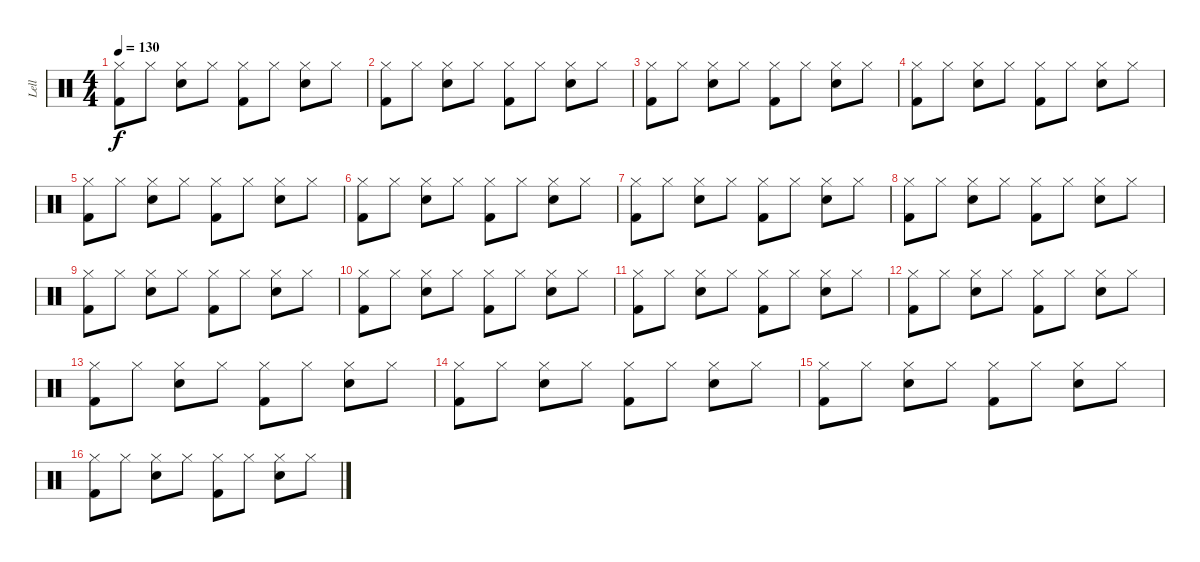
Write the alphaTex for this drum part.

\track ("Lell" "Lell") {instrument percussion}
\staff {score}
\articulation defaults
\ts (4 4)
\tempo 130
\clef neutral
\ks c
("Hi-Hat (closed)" "Kick (hit) 2").8{dy f} "Hi-Hat (closed)".8 ("Hi-Hat (closed)" "Snare (hit) 2").8 "Hi-Hat (closed)".8 ("Hi-Hat (closed)" "Kick (hit) 2").8 "Hi-Hat (closed)".8 ("Hi-Hat (closed)" "Snare (hit) 2").8 "Hi-Hat (closed)".8 |
("Hi-Hat (closed)" "Kick (hit) 2").8 "Hi-Hat (closed)".8 ("Hi-Hat (closed)" "Snare (hit) 2").8 "Hi-Hat (closed)".8 ("Hi-Hat (closed)" "Kick (hit) 2").8 "Hi-Hat (closed)".8 ("Hi-Hat (closed)" "Snare (hit) 2").8 "Hi-Hat (closed)".8 |
("Hi-Hat (closed)" "Kick (hit) 2").8 "Hi-Hat (closed)".8 ("Hi-Hat (closed)" "Snare (hit) 2").8 "Hi-Hat (closed)".8 ("Hi-Hat (closed)" "Kick (hit) 2").8 "Hi-Hat (closed)".8 ("Hi-Hat (closed)" "Snare (hit) 2").8 "Hi-Hat (closed)".8 |
("Hi-Hat (closed)" "Kick (hit) 2").8 "Hi-Hat (closed)".8 ("Hi-Hat (closed)" "Snare (hit) 2").8 "Hi-Hat (closed)".8 ("Hi-Hat (closed)" "Kick (hit) 2").8 "Hi-Hat (closed)".8 ("Hi-Hat (closed)" "Snare (hit) 2").8 "Hi-Hat (closed)".8 |
("Hi-Hat (closed)" "Kick (hit) 2").8 "Hi-Hat (closed)".8 ("Hi-Hat (closed)" "Snare (hit) 2").8 "Hi-Hat (closed)".8 ("Hi-Hat (closed)" "Kick (hit) 2").8 "Hi-Hat (closed)".8 ("Hi-Hat (closed)" "Snare (hit) 2").8 "Hi-Hat (closed)".8 |
("Hi-Hat (closed)" "Kick (hit) 2").8 "Hi-Hat (closed)".8 ("Hi-Hat (closed)" "Snare (hit) 2").8 "Hi-Hat (closed)".8 ("Hi-Hat (closed)" "Kick (hit) 2").8 "Hi-Hat (closed)".8 ("Hi-Hat (closed)" "Snare (hit) 2").8 "Hi-Hat (closed)".8 |
("Hi-Hat (closed)" "Kick (hit) 2").8 "Hi-Hat (closed)".8 ("Hi-Hat (closed)" "Snare (hit) 2").8 "Hi-Hat (closed)".8 ("Hi-Hat (closed)" "Kick (hit) 2").8 "Hi-Hat (closed)".8 ("Hi-Hat (closed)" "Snare (hit) 2").8 "Hi-Hat (closed)".8 |
("Hi-Hat (closed)" "Kick (hit) 2").8 "Hi-Hat (closed)".8 ("Hi-Hat (closed)" "Snare (hit) 2").8 "Hi-Hat (closed)".8 ("Hi-Hat (closed)" "Kick (hit) 2").8 "Hi-Hat (closed)".8 ("Hi-Hat (closed)" "Snare (hit) 2").8 "Hi-Hat (closed)".8 |
("Hi-Hat (closed)" "Kick (hit) 2").8 "Hi-Hat (closed)".8 ("Hi-Hat (closed)" "Snare (hit) 2").8 "Hi-Hat (closed)".8 ("Hi-Hat (closed)" "Kick (hit) 2").8 "Hi-Hat (closed)".8 ("Hi-Hat (closed)" "Snare (hit) 2").8 "Hi-Hat (closed)".8 |
("Hi-Hat (closed)" "Kick (hit) 2").8 "Hi-Hat (closed)".8 ("Hi-Hat (closed)" "Snare (hit) 2").8 "Hi-Hat (closed)".8 ("Hi-Hat (closed)" "Kick (hit) 2").8 "Hi-Hat (closed)".8 ("Hi-Hat (closed)" "Snare (hit) 2").8 "Hi-Hat (closed)".8 |
("Hi-Hat (closed)" "Kick (hit) 2").8 "Hi-Hat (closed)".8 ("Hi-Hat (closed)" "Snare (hit) 2").8 "Hi-Hat (closed)".8 ("Hi-Hat (closed)" "Kick (hit) 2").8 "Hi-Hat (closed)".8 ("Hi-Hat (closed)" "Snare (hit) 2").8 "Hi-Hat (closed)".8 |
("Hi-Hat (closed)" "Kick (hit) 2").8 "Hi-Hat (closed)".8 ("Hi-Hat (closed)" "Snare (hit) 2").8 "Hi-Hat (closed)".8 ("Hi-Hat (closed)" "Kick (hit) 2").8 "Hi-Hat (closed)".8 ("Hi-Hat (closed)" "Snare (hit) 2").8 "Hi-Hat (closed)".8 |
("Hi-Hat (closed)" "Kick (hit) 2").8 "Hi-Hat (closed)".8 ("Hi-Hat (closed)" "Snare (hit) 2").8 "Hi-Hat (closed)".8 ("Hi-Hat (closed)" "Kick (hit) 2").8 "Hi-Hat (closed)".8 ("Hi-Hat (closed)" "Snare (hit) 2").8 "Hi-Hat (closed)".8 |
("Hi-Hat (closed)" "Kick (hit) 2").8 "Hi-Hat (closed)".8 ("Hi-Hat (closed)" "Snare (hit) 2").8 "Hi-Hat (closed)".8 ("Hi-Hat (closed)" "Kick (hit) 2").8 "Hi-Hat (closed)".8 ("Hi-Hat (closed)" "Snare (hit) 2").8 "Hi-Hat (closed)".8 |
("Hi-Hat (closed)" "Kick (hit) 2").8 "Hi-Hat (closed)".8 ("Hi-Hat (closed)" "Snare (hit) 2").8 "Hi-Hat (closed)".8 ("Hi-Hat (closed)" "Kick (hit) 2").8 "Hi-Hat (closed)".8 ("Hi-Hat (closed)" "Snare (hit) 2").8 "Hi-Hat (closed)".8 |
("Hi-Hat (closed)" "Kick (hit) 2").8 "Hi-Hat (closed)".8 ("Hi-Hat (closed)" "Snare (hit) 2").8 "Hi-Hat (closed)".8 ("Hi-Hat (closed)" "Kick (hit) 2").8 "Hi-Hat (closed)".8 ("Hi-Hat (closed)" "Snare (hit) 2").8 "Hi-Hat (closed)".8
